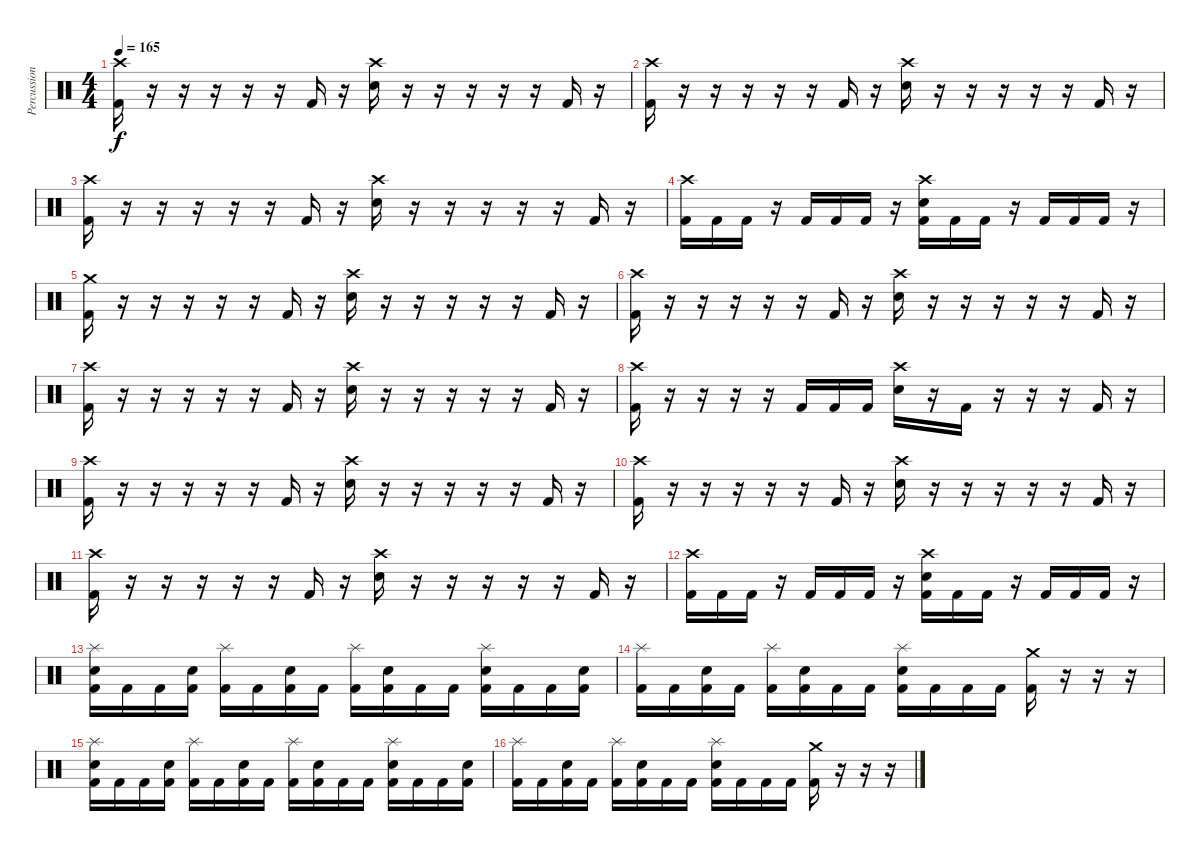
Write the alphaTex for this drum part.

\track ("Percussion" "Percussion") {instrument percussion}
\staff {score}
\articulation defaults
\ts (4 4)
\tempo 165
\clef neutral
\ks c
("Crash high (hit)" "Kick (hit) 2").16{dy f} r.16 r.16 r.16 r.16 r.16 "Kick (hit) 2".16 r.16 ("Crash high (hit)" "Electric Snare (hit)").16 r.16 r.16 r.16 r.16 r.16 "Kick (hit) 2".16 r.16 |
("Crash high (hit)" "Kick (hit) 2").16 r.16 r.16 r.16 r.16 r.16 "Kick (hit) 2".16 r.16 ("Crash high (hit)" "Electric Snare (hit)").16 r.16 r.16 r.16 r.16 r.16 "Kick (hit) 2".16 r.16 |
("Crash high (hit)" "Kick (hit) 2").16 r.16 r.16 r.16 r.16 r.16 "Kick (hit) 2".16 r.16 ("Crash high (hit)" "Electric Snare (hit)").16 r.16 r.16 r.16 r.16 r.16 "Kick (hit) 2".16 r.16 |
("Crash high (hit)" "Kick (hit) 2").16 "Kick (hit) 2".16 "Kick (hit) 2".16 r.16 "Kick (hit) 2".16 "Kick (hit) 2".16 "Kick (hit) 2".16 r.16 ("Crash high (hit)" "Electric Snare (hit)" "Kick (hit) 2").16 "Kick (hit) 2".16 "Kick (hit) 2".16 r.16 "Kick (hit) 2".16 "Kick (hit) 2".16 "Kick (hit) 2".16 r.16 |
("Crash medium (hit)" "Kick (hit) 2").16 r.16 r.16 r.16 r.16 r.16 "Kick (hit) 2".16 r.16 ("Crash high (hit)" "Electric Snare (hit)").16 r.16 r.16 r.16 r.16 r.16 "Kick (hit) 2".16 r.16 |
("Crash high (hit)" "Kick (hit) 2").16 r.16 r.16 r.16 r.16 r.16 "Kick (hit) 2".16 r.16 ("Crash high (hit)" "Electric Snare (hit)").16 r.16 r.16 r.16 r.16 r.16 "Kick (hit) 2".16 r.16 |
("Crash high (hit)" "Kick (hit) 2").16 r.16 r.16 r.16 r.16 r.16 "Kick (hit) 2".16 r.16 ("Crash high (hit)" "Electric Snare (hit)").16 r.16 r.16 r.16 r.16 r.16 "Kick (hit) 2".16 r.16 |
("Crash high (hit)" "Kick (hit) 2").16 r.16 r.16 r.16 r.16 "Kick (hit) 2".16 "Kick (hit) 2".16 "Kick (hit) 2".16 ("Crash high (hit)" "Electric Snare (hit)").16 r.16 "Kick (hit) 2".16 r.16 r.16 r.16 "Kick (hit) 2".16 r.16 |
("Crash high (hit)" "Kick (hit) 2").16 r.16 r.16 r.16 r.16 r.16 "Kick (hit) 2".16 r.16 ("Crash high (hit)" "Electric Snare (hit)").16 r.16 r.16 r.16 r.16 r.16 "Kick (hit) 2".16 r.16 |
("Crash high (hit)" "Kick (hit) 2").16 r.16 r.16 r.16 r.16 r.16 "Kick (hit) 2".16 r.16 ("Crash high (hit)" "Electric Snare (hit)").16 r.16 r.16 r.16 r.16 r.16 "Kick (hit) 2".16 r.16 |
("Crash high (hit)" "Kick (hit) 2").16 r.16 r.16 r.16 r.16 r.16 "Kick (hit) 2".16 r.16 ("Crash high (hit)" "Electric Snare (hit)").16 r.16 r.16 r.16 r.16 r.16 "Kick (hit) 2".16 r.16 |
("Crash high (hit)" "Kick (hit) 2").16 "Kick (hit) 2".16 "Kick (hit) 2".16 r.16 "Kick (hit) 2".16 "Kick (hit) 2".16 "Kick (hit) 2".16 r.16 ("Crash high (hit)" "Electric Snare (hit)" "Kick (hit) 2").16 "Kick (hit) 2".16 "Kick (hit) 2".16 r.16 "Kick (hit) 2".16 "Kick (hit) 2".16 "Kick (hit) 2".16 r.16 |
("Splash (hit)" "Electric Snare (hit)" "Kick (hit) 2").16 "Kick (hit) 2".16 "Kick (hit) 2".16 ("Electric Snare (hit)" "Kick (hit) 2").16 ("Splash (hit)" "Kick (hit) 2").16 "Kick (hit) 2".16 ("Electric Snare (hit)" "Kick (hit) 2").16 "Kick (hit) 2".16 ("Splash (hit)" "Kick (hit) 2").16 ("Electric Snare (hit)" "Kick (hit) 2").16 "Kick (hit) 2".16 "Kick (hit) 2".16 ("Splash (hit)" "Electric Snare (hit)" "Kick (hit) 2").16 "Kick (hit) 2".16 "Kick (hit) 2".16 ("Electric Snare (hit)" "Kick (hit) 2").16 |
("Splash (hit)" "Kick (hit) 2").16 "Kick (hit) 2".16 ("Electric Snare (hit)" "Kick (hit) 2").16 "Kick (hit) 2".16 ("Splash (hit)" "Kick (hit) 2").16 ("Electric Snare (hit)" "Kick (hit) 2").16 "Kick (hit) 2".16 "Kick (hit) 2".16 ("Splash (hit)" "Electric Snare (hit)" "Kick (hit) 2").16 "Kick (hit) 2".16 "Kick (hit) 2".16 "Kick (hit) 2".16 ("Crash medium (hit)" "Kick (hit) 2").16 r.16 r.16 r.16 |
("Splash (hit)" "Electric Snare (hit)" "Kick (hit) 2").16 "Kick (hit) 2".16 "Kick (hit) 2".16 ("Electric Snare (hit)" "Kick (hit) 2").16 ("Splash (hit)" "Kick (hit) 2").16 "Kick (hit) 2".16 ("Electric Snare (hit)" "Kick (hit) 2").16 "Kick (hit) 2".16 ("Splash (hit)" "Kick (hit) 2").16 ("Electric Snare (hit)" "Kick (hit) 2").16 "Kick (hit) 2".16 "Kick (hit) 2".16 ("Splash (hit)" "Electric Snare (hit)" "Kick (hit) 2").16 "Kick (hit) 2".16 "Kick (hit) 2".16 ("Electric Snare (hit)" "Kick (hit) 2").16 |
("Splash (hit)" "Kick (hit) 2").16 "Kick (hit) 2".16 ("Electric Snare (hit)" "Kick (hit) 2").16 "Kick (hit) 2".16 ("Splash (hit)" "Kick (hit) 2").16 ("Electric Snare (hit)" "Kick (hit) 2").16 "Kick (hit) 2".16 "Kick (hit) 2".16 ("Splash (hit)" "Electric Snare (hit)" "Kick (hit) 2").16 "Kick (hit) 2".16 "Kick (hit) 2".16 "Kick (hit) 2".16 ("Crash medium (hit)" "Kick (hit) 2").16 r.16 r.16 r.16
